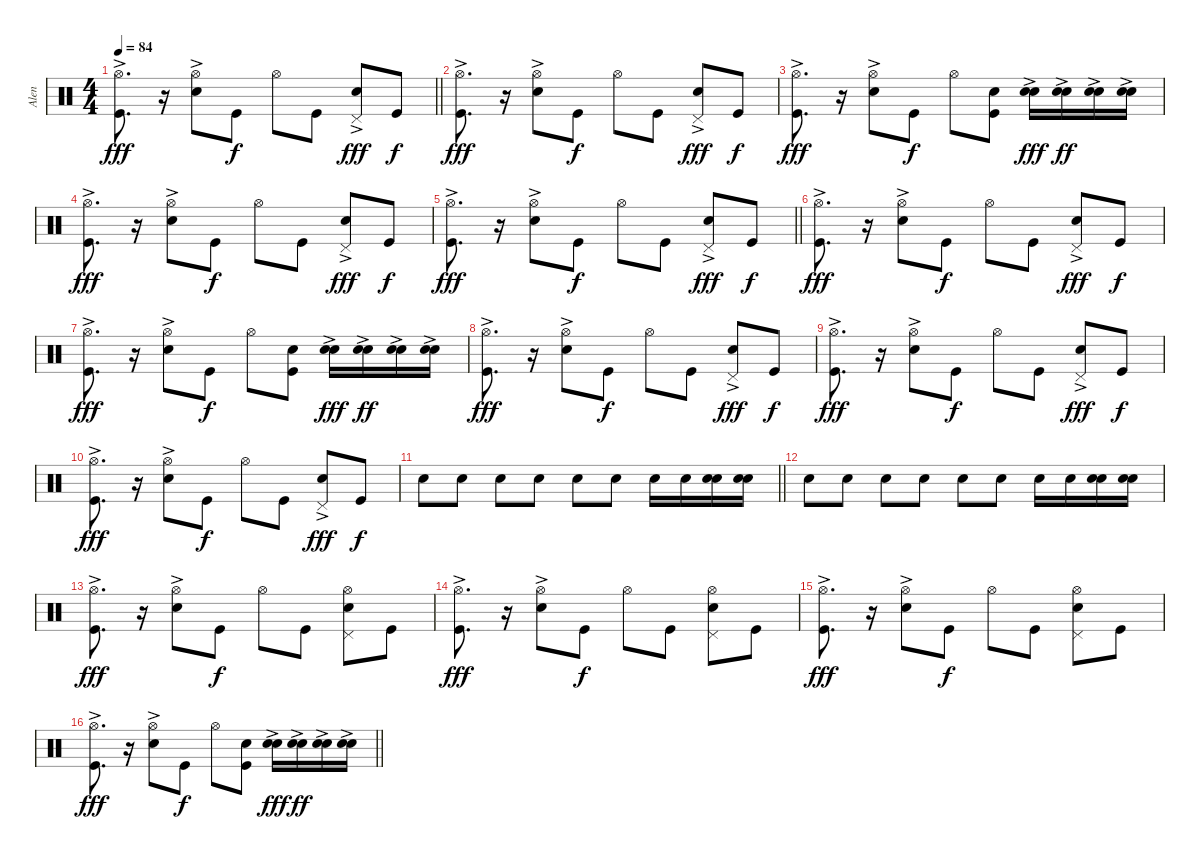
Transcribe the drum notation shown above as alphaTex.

\track ("Alen" "Alen") {instrument percussion}
\staff {score}
\articulation defaults
\ts (4 4)
\tempo 84
\clef neutral
\barLineRight lightlight
\ks c
("Hi-Hat (open)"{ac} "Kick (hit)").8{d dy fff} r.16 ("Hi-Hat (open)" "Snare (hit) 2"{ac}).8 "Kick (hit)".8{dy f} "Hi-Hat (open)".8 "Kick (hit)".8 ("Snare (hit) 2"{ac} "Pedal Hi-Hat (hit)"{ac}).8{dy fff} "Kick (hit)".8{dy f} |
("Hi-Hat (open)"{ac} "Kick (hit)").8{d dy fff} r.16 ("Hi-Hat (open)" "Snare (hit) 2"{ac}).8 "Kick (hit)".8{dy f} "Hi-Hat (open)".8 "Kick (hit)".8 ("Snare (hit) 2"{ac} "Pedal Hi-Hat (hit)"{ac}).8{dy fff} "Kick (hit)".8{dy f} |
("Hi-Hat (open)"{ac} "Kick (hit)").8{d dy fff} r.16 ("Hi-Hat (open)" "Snare (hit) 2"{ac}).8 "Kick (hit)".8{dy f} "Hi-Hat (open)".8 ("Electric Snare (hit)" "Kick (hit)").8 ("Snare (hit) 2"{ac} "Electric Snare (hit)"{ac}).16{dy fff} ("Snare (hit) 2"{ac} "Electric Snare (hit)").16{dy ff} ("Snare (hit) 2"{ac} "Electric Snare (hit)").16 ("Snare (hit) 2"{ac} "Electric Snare (hit)").16 |
("Hi-Hat (open)"{ac} "Kick (hit)").8{d dy fff} r.16 ("Hi-Hat (open)" "Snare (hit) 2"{ac}).8 "Kick (hit)".8{dy f} "Hi-Hat (open)".8 "Kick (hit)".8 ("Snare (hit) 2"{ac} "Pedal Hi-Hat (hit)"{ac}).8{dy fff} "Kick (hit)".8{dy f} |
\barLineRight lightlight
("Hi-Hat (open)"{ac} "Kick (hit)").8{d dy fff} r.16 ("Hi-Hat (open)" "Snare (hit) 2"{ac}).8 "Kick (hit)".8{dy f} "Hi-Hat (open)".8 "Kick (hit)".8 ("Snare (hit) 2"{ac} "Pedal Hi-Hat (hit)"{ac}).8{dy fff} "Kick (hit)".8{dy f} |
("Hi-Hat (open)"{ac} "Kick (hit)").8{d dy fff} r.16 ("Hi-Hat (open)" "Snare (hit) 2"{ac}).8 "Kick (hit)".8{dy f} "Hi-Hat (open)".8 "Kick (hit)".8 ("Snare (hit) 2"{ac} "Pedal Hi-Hat (hit)"{ac}).8{dy fff} "Kick (hit)".8{dy f} |
("Hi-Hat (open)"{ac} "Kick (hit)").8{d dy fff} r.16 ("Hi-Hat (open)" "Snare (hit) 2"{ac}).8 "Kick (hit)".8{dy f} "Hi-Hat (open)".8 ("Electric Snare (hit)" "Kick (hit)").8 ("Snare (hit) 2"{ac} "Electric Snare (hit)"{ac}).16{dy fff} ("Snare (hit) 2"{ac} "Electric Snare (hit)").16{dy ff} ("Snare (hit) 2"{ac} "Electric Snare (hit)").16 ("Snare (hit) 2"{ac} "Electric Snare (hit)").16 |
("Hi-Hat (open)"{ac} "Kick (hit)").8{d dy fff} r.16 ("Hi-Hat (open)" "Snare (hit) 2"{ac}).8 "Kick (hit)".8{dy f} "Hi-Hat (open)".8 "Kick (hit)".8 ("Snare (hit) 2"{ac} "Pedal Hi-Hat (hit)"{ac}).8{dy fff} "Kick (hit)".8{dy f} |
("Hi-Hat (open)"{ac} "Kick (hit)").8{d dy fff} r.16 ("Hi-Hat (open)" "Snare (hit) 2"{ac}).8 "Kick (hit)".8{dy f} "Hi-Hat (open)".8 "Kick (hit)".8 ("Snare (hit) 2"{ac} "Pedal Hi-Hat (hit)"{ac}).8{dy fff} "Kick (hit)".8{dy f} |
("Hi-Hat (open)"{ac} "Kick (hit)").8{d dy fff} r.16 ("Hi-Hat (open)" "Snare (hit) 2"{ac}).8 "Kick (hit)".8{dy f} "Hi-Hat (open)".8 "Kick (hit)".8 ("Snare (hit) 2"{ac} "Pedal Hi-Hat (hit)"{ac}).8{dy fff} "Kick (hit)".8{dy f} |
\barLineRight lightlight "Electric Snare (hit)".8 "Electric Snare (hit)".8 "Electric Snare (hit)".8 "Electric Snare (hit)".8 "Electric Snare (hit)".8 "Electric Snare (hit)".8 "Snare (hit) 2".16 "Snare (hit) 2".16
("Electric Snare (hit)" "Electric Snare (hit)").16 ("Electric Snare (hit)" "Electric Snare (hit)").16 |
"Electric Snare (hit)".8 "Electric Snare (hit)".8 "Electric Snare (hit)".8 "Electric Snare (hit)".8 "Electric Snare (hit)".8 "Electric Snare (hit)".8 "Snare (hit) 2".16 "Snare (hit) 2".16 ("Electric Snare (hit)" "Snare (hit) 2").16 ("Electric Snare (hit)" "Snare (hit) 2").16 |
("Hi-Hat (open)"{ac} "Kick (hit)").8{d dy fff} r.16 ("Hi-Hat (open)" "Snare (hit) 2"{ac}).8 "Kick (hit)".8{dy f} "Hi-Hat (open)".8 "Kick (hit)".8 ("Pedal Hi-Hat (hit)" "Snare (hit) 2" "Hi-Hat (open)").8 "Kick (hit)".8 |
("Hi-Hat (open)"{ac} "Kick (hit)").8{d dy fff} r.16 ("Hi-Hat (open)" "Snare (hit) 2"{ac}).8 "Kick (hit)".8{dy f} "Hi-Hat (open)".8 "Kick (hit)".8 ("Pedal Hi-Hat (hit)" "Snare (hit) 2" "Hi-Hat (open)").8 "Kick (hit)".8 |
("Hi-Hat (open)"{ac} "Kick (hit)").8{d dy fff} r.16 ("Hi-Hat (open)" "Snare (hit) 2"{ac}).8 "Kick (hit)".8{dy f} "Hi-Hat (open)".8 "Kick (hit)".8 ("Pedal Hi-Hat (hit)" "Snare (hit) 2" "Hi-Hat (open)").8 "Kick (hit)".8 |
\barLineRight lightlight
("Hi-Hat (open)"{ac} "Kick (hit)").8{d dy fff} r.16 ("Hi-Hat (open)" "Snare (hit) 2"{ac}).8 "Kick (hit)".8{dy f} "Hi-Hat (open)".8 ("Electric Snare (hit)" "Kick (hit)").8 ("Snare (hit) 2"{ac} "Electric Snare (hit)"{ac}).16{dy fff} ("Snare (hit) 2"{ac} "Electric Snare (hit)").16{dy ff} ("Snare (hit) 2"{ac} "Electric Snare (hit)").16 ("Snare (hit) 2"{ac} "Electric Snare (hit)").16
